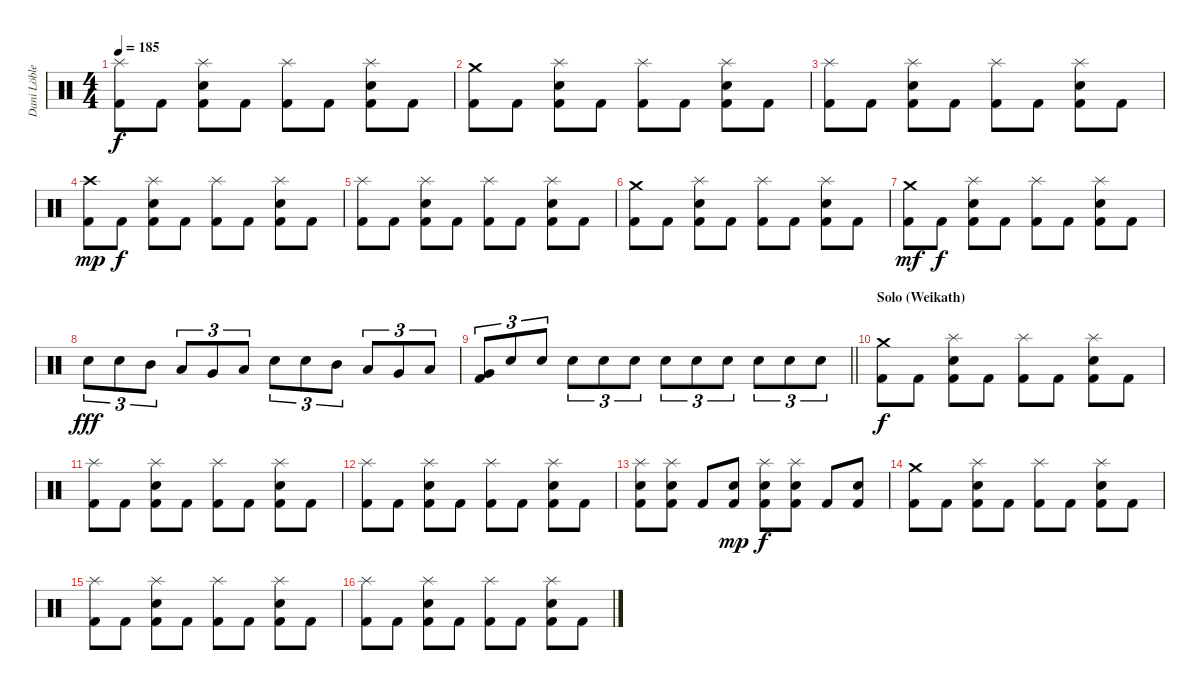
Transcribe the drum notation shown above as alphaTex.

\track ("Dani Löble" "Dani Löble") {instrument percussion}
\staff {score}
\articulation defaults
\ts (4 4)
\tempo 185
\clef neutral
\ks c
("Splash (hit)" "Kick (hit) 2").8{dy f} "Kick (hit) 2".8 ("Splash (hit)" "Electric Snare (hit)" "Kick (hit) 2").8 "Kick (hit) 2".8 ("Splash (hit)" "Kick (hit) 2").8 "Kick (hit) 2".8 ("Splash (hit)" "Electric Snare (hit)" "Kick (hit) 2").8 "Kick (hit) 2".8 |
("Crash medium (hit)" "Kick (hit) 2").8 "Kick (hit) 2".8 ("Splash (hit)" "Electric Snare (hit)" "Kick (hit) 2").8 "Kick (hit) 2".8 ("Splash (hit)" "Kick (hit) 2").8 "Kick (hit) 2".8 ("Splash (hit)" "Electric Snare (hit)" "Kick (hit) 2").8 "Kick (hit) 2".8 |
("Splash (hit)" "Kick (hit) 2").8 "Kick (hit) 2".8 ("Splash (hit)" "Electric Snare (hit)" "Kick (hit) 2").8 "Kick (hit) 2".8 ("Splash (hit)" "Kick (hit) 2").8 "Kick (hit) 2".8 ("Splash (hit)" "Electric Snare (hit)" "Kick (hit) 2").8 "Kick (hit) 2".8 |
("Crash high (hit)" "Kick (hit) 2").8{dy mp} "Kick (hit) 2".8{dy f} ("Splash (hit)" "Electric Snare (hit)" "Kick (hit) 2").8 "Kick (hit) 2".8 ("Splash (hit)" "Kick (hit) 2").8 "Kick (hit) 2".8 ("Splash (hit)" "Electric Snare (hit)" "Kick (hit) 2").8 "Kick (hit) 2".8 |
("Splash (hit)" "Kick (hit) 2").8 "Kick (hit) 2".8 ("Splash (hit)" "Electric Snare (hit)" "Kick (hit) 2").8 "Kick (hit) 2".8 ("Splash (hit)" "Kick (hit) 2").8 "Kick (hit) 2".8 ("Splash (hit)" "Electric Snare (hit)" "Kick (hit) 2").8 "Kick (hit) 2".8 |
("Crash medium (hit)" "Kick (hit) 2").8 "Kick (hit) 2".8 ("Splash (hit)" "Electric Snare (hit)" "Kick (hit) 2").8 "Kick (hit) 2".8 ("Splash (hit)" "Kick (hit) 2").8 "Kick (hit) 2".8 ("Splash (hit)" "Electric Snare (hit)" "Kick (hit) 2").8 "Kick (hit) 2".8 |
("Crash medium (hit)" "Kick (hit) 2").8{dy mf} "Kick (hit) 2".8{dy f} ("Splash (hit)" "Electric Snare (hit)" "Kick (hit) 2").8 "Kick (hit) 2".8 ("Splash (hit)" "Kick (hit) 2").8 "Kick (hit) 2".8 ("Splash (hit)" "Electric Snare (hit)" "Kick (hit) 2").8 "Kick (hit) 2".8 |
"Electric Snare (hit)".8{tu (3 2) dy fff} "Electric Snare (hit)".8{tu (3 2)} "Mid Tom (hit)".8{tu (3 2)} "Low Tom (hit)".8{tu (3 2)} "Very Low Tom (hit)".8{tu (3 2)} "Low Floor Tom (hit)".8{tu (3 2)} "Electric Snare (hit)".8{tu (3 2)} "Electric Snare (hit)".8{tu (3 2)} "Mid Tom (hit)".8{tu (3 2)} "Low Tom (hit)".8{tu (3 2)} "Very Low Tom (hit)".8{tu (3 2)} "Low Floor Tom (hit)".8{tu (3 2)} |
\barLineRight lightlight
("Very Low Tom (hit)" "Kick (hit) 2").8{tu (3 2)} "Electric Snare (hit)".8{tu (3 2)} "Electric Snare (hit)".8{tu (3 2)} "Electric Snare (hit)".8{tu (3 2)} "Electric Snare (hit)".8{tu (3 2)} "Electric Snare (hit)".8{tu (3 2)} "Electric Snare (hit)".8{tu (3 2)} "Electric Snare (hit)".8{tu (3 2)} "Electric Snare (hit)".8{tu (3 2)} "Electric Snare (hit)".8{tu (3 2)} "Electric Snare (hit)".8{tu (3 2)} "Electric Snare (hit)".8{tu (3 2)} |
\section ("" "Solo (Weikath)")
("Crash medium (hit)" "Kick (hit) 2").8{dy f} "Kick (hit) 2".8 ("Splash (hit)" "Electric Snare (hit)" "Kick (hit) 2").8 "Kick (hit) 2".8 ("Splash (hit)" "Kick (hit) 2").8 "Kick (hit) 2".8 ("Splash (hit)" "Electric Snare (hit)" "Kick (hit) 2").8 "Kick (hit) 2".8 |
("Splash (hit)" "Kick (hit) 2").8 "Kick (hit) 2".8 ("Splash (hit)" "Electric Snare (hit)" "Kick (hit) 2").8 "Kick (hit) 2".8 ("Splash (hit)" "Kick (hit) 2").8 "Kick (hit) 2".8 ("Splash (hit)" "Electric Snare (hit)" "Kick (hit) 2").8 "Kick (hit) 2".8 |
("Splash (hit)" "Kick (hit) 2").8 "Kick (hit) 2".8 ("Splash (hit)" "Electric Snare (hit)" "Kick (hit) 2").8 "Kick (hit) 2".8 ("Splash (hit)" "Kick (hit) 2").8 "Kick (hit) 2".8 ("Splash (hit)" "Electric Snare (hit)" "Kick (hit) 2").8 "Kick (hit) 2".8 |
("Splash (hit)" "Electric Snare (hit)" "Kick (hit) 2").8 ("Splash (hit)" "Electric Snare (hit)" "Kick (hit) 2").8 "Kick (hit) 2".8 ("Electric Snare (hit)" "Kick (hit) 2").8{dy mp} ("Splash (hit)" "Electric Snare (hit)" "Kick (hit) 2").8{dy f} ("Splash (hit)" "Electric Snare (hit)" "Kick (hit) 2").8 "Kick (hit) 2".8 ("Electric Snare (hit)" "Kick (hit) 2").8 |
("Crash medium (hit)" "Kick (hit) 2").8 "Kick (hit) 2".8 ("Splash (hit)" "Electric Snare (hit)" "Kick (hit) 2").8 "Kick (hit) 2".8 ("Splash (hit)" "Kick (hit) 2").8 "Kick (hit) 2".8 ("Splash (hit)" "Electric Snare (hit)" "Kick (hit) 2").8 "Kick (hit) 2".8 |
("Splash (hit)" "Kick (hit) 2").8 "Kick (hit) 2".8 ("Splash (hit)" "Electric Snare (hit)" "Kick (hit) 2").8 "Kick (hit) 2".8 ("Splash (hit)" "Kick (hit) 2").8 "Kick (hit) 2".8 ("Splash (hit)" "Electric Snare (hit)" "Kick (hit) 2").8 "Kick (hit) 2".8 |
("Splash (hit)" "Kick (hit) 2").8 "Kick (hit) 2".8 ("Splash (hit)" "Electric Snare (hit)" "Kick (hit) 2").8 "Kick (hit) 2".8 ("Splash (hit)" "Kick (hit) 2").8 "Kick (hit) 2".8 ("Splash (hit)" "Electric Snare (hit)" "Kick (hit) 2").8 "Kick (hit) 2".8
